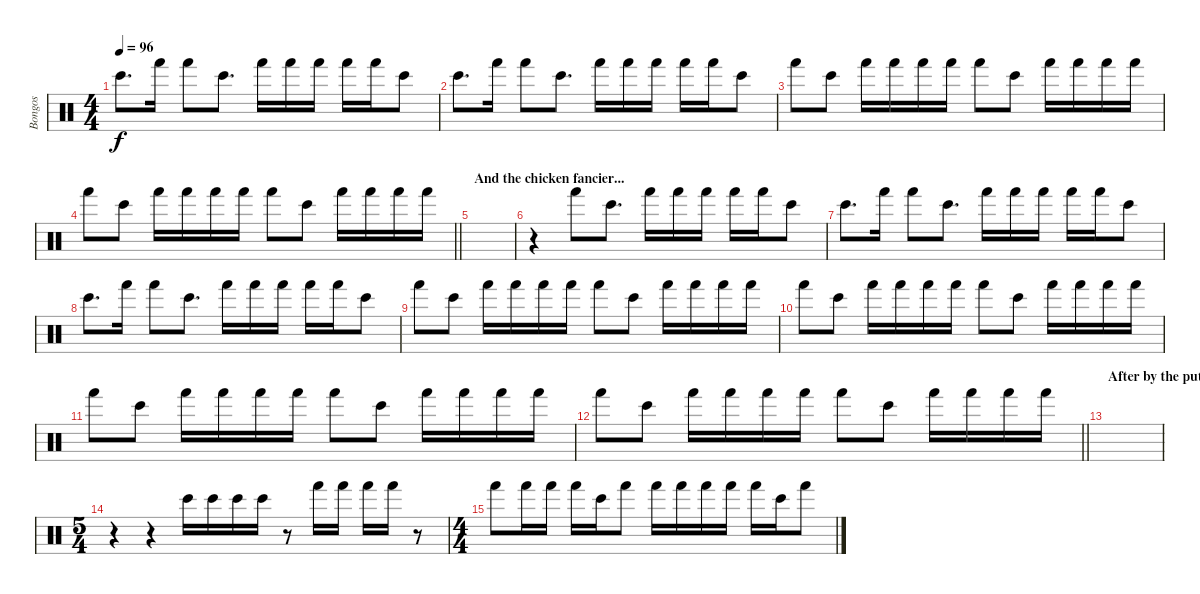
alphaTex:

\track ("Bongos" "Bongos") {instrument percussion}
\staff {score}
\articulation defaults
\ts (4 4)
\tempo 96
\clef neutral
\ks c "Bongo High (hit)".8{d dy f} "Hand (hit)".16 "Hand (hit)".8 "Bongo High (hit)".8{d} "Hand (hit)".16 "Hand (hit)".16 "Hand (hit)".16 "Hand (hit)".16 "Hand (hit)".16 "Bongo High (hit)".8
|
"Bongo High (hit)".8{d} "Hand (hit)".16 "Hand (hit)".8 "Bongo High (hit)".8{d} "Hand (hit)".16 "Hand (hit)".16 "Hand (hit)".16 "Hand (hit)".16 "Hand (hit)".16 "Bongo High (hit)".8 |
"Hand (hit)".8 "Bongo High (hit)".8 "Hand (hit)".16 "Hand (hit)".16 "Hand (hit)".16 "Hand (hit)".16 "Hand (hit)".8 "Bongo High (hit)".8 "Hand (hit)".16 "Hand (hit)".16 "Hand (hit)".16 "Hand (hit)".16 |
\barLineRight lightlight "Hand (hit)".8 "Bongo High (hit)".8 "Hand (hit)".16 "Hand (hit)".16 "Hand (hit)".16 "Hand (hit)".16 "Hand (hit)".8 "Bongo High (hit)".8 "Hand (hit)".16 "Hand (hit)".16 "Hand (hit)".16 "Hand (hit)".16
|
\section ("" "And the chicken fancier...")
|
r.4 "Hand (hit)".8 "Bongo High (hit)".8{d} "Hand (hit)".16 "Hand (hit)".16 "Hand (hit)".16 "Hand (hit)".16 "Hand (hit)".16 "Bongo High (hit)".8 |
"Bongo High (hit)".8{d} "Hand (hit)".16 "Hand (hit)".8 "Bongo High (hit)".8{d} "Hand (hit)".16 "Hand (hit)".16 "Hand (hit)".16 "Hand (hit)".16 "Hand (hit)".16 "Bongo High (hit)".8 |
"Bongo High (hit)".8{d} "Hand (hit)".16 "Hand (hit)".8 "Bongo High (hit)".8{d} "Hand (hit)".16 "Hand (hit)".16 "Hand (hit)".16 "Hand (hit)".16 "Hand (hit)".16 "Bongo High (hit)".8 |
"Hand (hit)".8 "Bongo High (hit)".8 "Hand (hit)".16 "Hand (hit)".16 "Hand (hit)".16 "Hand (hit)".16 "Hand (hit)".8 "Bongo High (hit)".8 "Hand (hit)".16 "Hand (hit)".16 "Hand (hit)".16 "Hand (hit)".16 |
"Hand (hit)".8 "Bongo High (hit)".8 "Hand (hit)".16 "Hand (hit)".16 "Hand (hit)".16 "Hand (hit)".16 "Hand (hit)".8 "Bongo High (hit)".8 "Hand (hit)".16 "Hand (hit)".16 "Hand (hit)".16 "Hand (hit)".16 |
"Hand (hit)".8 "Bongo High (hit)".8 "Hand (hit)".16 "Hand (hit)".16 "Hand (hit)".16 "Hand (hit)".16 "Hand (hit)".8 "Bongo High (hit)".8 "Hand (hit)".16 "Hand (hit)".16 "Hand (hit)".16 "Hand (hit)".16 |
\barLineRight lightlight "Hand (hit)".8 "Bongo High (hit)".8 "Hand (hit)".16 "Hand (hit)".16 "Hand (hit)".16 "Hand (hit)".16 "Hand (hit)".8 "Bongo High (hit)".8 "Hand (hit)".16 "Hand (hit)".16 "Hand (hit)".16 "Hand (hit)".16
|
\section ("" "After by the putting green...")
|
\ts (5 4)
r.4 r.4 "Bongo High (hit)".16 "Bongo High (hit)".16 "Bongo High (hit)".16 "Bongo High (hit)".16 r.8 "Hand (hit)".16 "Hand (hit)".16 "Hand (hit)".16 "Hand (hit)".16 r.8 |
\ts (4 4)
"Hand (hit)".8 "Hand (hit)".16 "Hand (hit)".16 "Hand (hit)".16 "Bongo High (hit)".16 "Hand (hit)".8 "Hand (hit)".16 "Hand (hit)".16 "Hand (hit)".16 "Hand (hit)".16 "Hand (hit)".16 "Bongo High (hit)".16 "Hand (hit)".8
